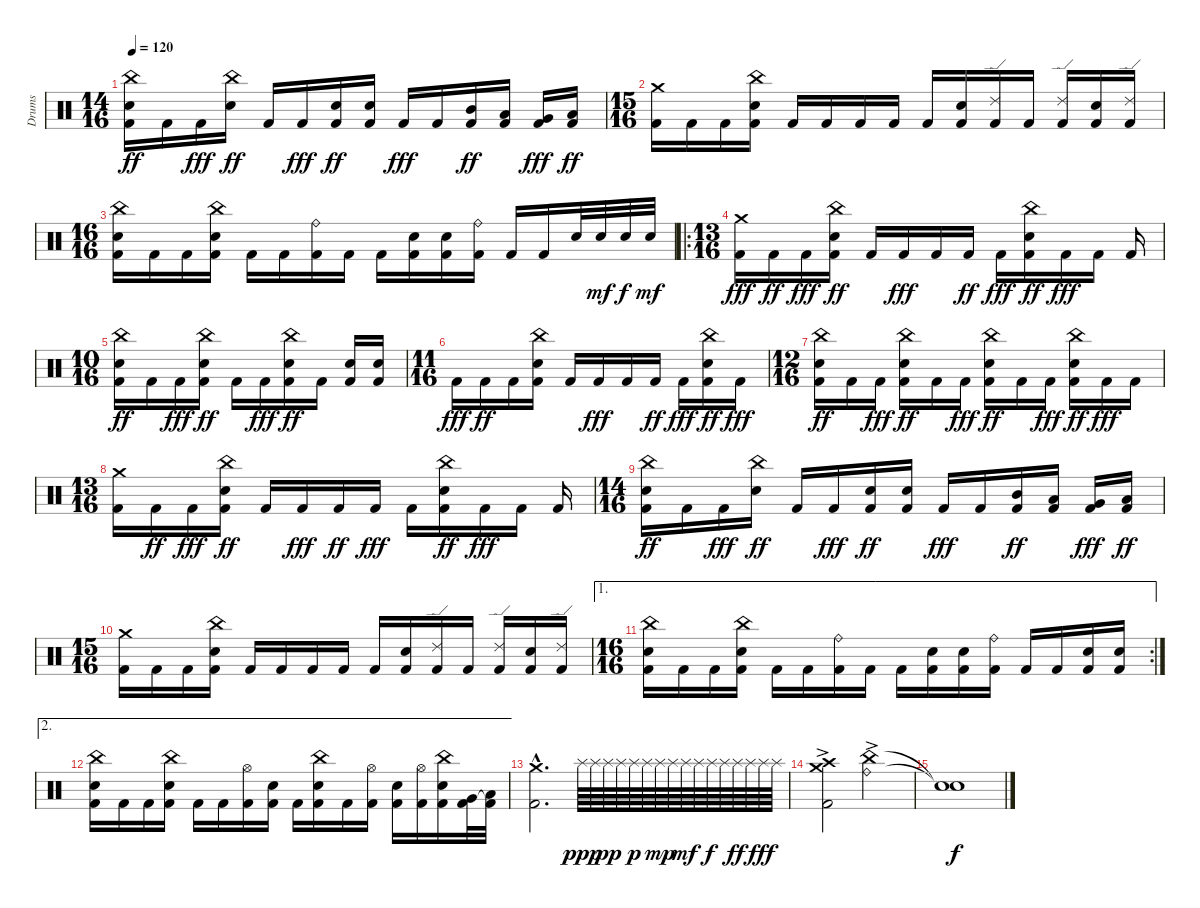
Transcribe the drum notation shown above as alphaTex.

\track ("Drums" "Drums") {instrument percussion}
\staff {score}
\articulation defaults
\ts (14 16)
\tempo 120
\clef neutral
\ks c
("China (hit)" "Snare (hit) 2" "Kick (hit) 2").16{dy ff} "Kick (hit) 2".16 "Kick (hit) 2".16{dy fff} ("China (hit)" "Snare (hit) 2").16{dy ff} "Kick (hit) 2".16 "Kick (hit) 2".16{dy fff} ("Snare (hit) 2" "Kick (hit) 2").16{dy ff} ("Snare (hit) 2" "Kick (hit) 2").16 "Kick (hit) 2".16{dy fff} "Kick (hit) 2".16 ("Mid Tom (hit)" "Kick (hit) 2").16{dy ff} ("Low Tom (hit)" "Kick (hit) 2").16 ("Very Low Tom (hit)" "Kick (hit) 2").16{dy fff} ("Low Floor Tom (hit)" "Kick (hit) 2").16{dy ff} |
\ts (15 16)
("Crash medium (hit)" "Kick (hit) 2").16 "Kick (hit) 2".16 "Kick (hit) 2".16 ("China (hit)" "Snare (hit) 2" "Kick (hit) 2").16 "Kick (hit) 2".16 "Kick (hit) 2".16 "Kick (hit) 2".16 "Kick (hit) 2".16 "Kick (hit) 2".16 ("Snare (hit) 2" "Kick (hit) 2").16 ("Ride (edge) 2" "Kick (hit) 2").16 "Kick (hit) 2".16 ("Ride (edge) 2" "Kick (hit) 2").16 ("Snare (hit) 2" "Kick (hit) 2").16 ("Ride (edge) 2" "Kick (hit) 2").16 |
\ts (16 16)
("China (hit)" "Snare (hit) 2" "Kick (hit) 2").16 "Kick (hit) 2".16 "Kick (hit) 2".16 ("China (hit)" "Snare (hit) 2" "Kick (hit) 2").16 "Kick (hit) 2".16 "Kick (hit) 2".16 ("Ride (bell)" "Kick (hit) 2").16 "Kick (hit) 2".16 "Kick (hit) 2".16 ("Snare (hit) 2" "Kick (hit) 2").16 ("Snare (hit) 2" "Kick (hit) 2").16 ("Ride (bell)" "Kick (hit) 2").16 "Kick (hit) 2".16 "Kick (hit) 2".16 "Snare (hit) 2".32 "Snare (hit) 2".32{dy mf} "Snare (hit) 2".32{dy f} "Snare (hit) 2".32{dy mf} |
\ro
\ts (13 16)
("Crash medium (hit)" "Kick (hit) 2").16{dy fff} "Kick (hit) 2".16{dy ff} "Kick (hit) 2".16{dy fff} ("China (hit)" "Snare (hit) 2" "Kick (hit) 2").16{dy ff} "Kick (hit) 2".16 "Kick (hit) 2".16{dy fff} "Kick (hit) 2".16 "Kick (hit) 2".16{dy ff} "Kick (hit) 2".16{dy fff} ("China (hit)" "Snare (hit) 2" "Kick (hit) 2").16{dy ff} "Kick (hit) 2".16{dy fff} "Kick (hit) 2".16 "Kick (hit) 2".16 |
\ts (10 16)
("China (hit)" "Snare (hit) 2" "Kick (hit) 2").16{dy ff} "Kick (hit) 2".16 "Kick (hit) 2".16{dy fff} ("China (hit)" "Snare (hit) 2" "Kick (hit) 2").16{dy ff} "Kick (hit) 2".16 "Kick (hit) 2".16{dy fff} ("China (hit)" "Snare (hit) 2" "Kick (hit) 2").16{dy ff} "Kick (hit) 2".16 ("Snare (hit) 2" "Kick (hit) 2").16 ("Snare (hit) 2" "Kick (hit) 2").16 |
\ts (11 16)
"Kick (hit) 2".16{dy fff} "Kick (hit) 2".16{dy ff} "Kick (hit) 2".16 ("China (hit)" "Snare (hit) 2" "Kick (hit) 2").16 "Kick (hit) 2".16 "Kick (hit) 2".16{dy fff} "Kick (hit) 2".16 "Kick (hit) 2".16{dy ff} "Kick (hit) 2".16{dy fff} ("China (hit)" "Snare (hit) 2" "Kick (hit) 2").16{dy ff} "Kick (hit) 2".16{dy fff} |
\ts (12 16)
("China (hit)" "Snare (hit) 2" "Kick (hit) 2").16{dy ff} "Kick (hit) 2".16 "Kick (hit) 2".16{dy fff} ("China (hit)" "Snare (hit) 2" "Kick (hit) 2").16{dy ff} "Kick (hit) 2".16 "Kick (hit) 2".16{dy fff} ("China (hit)" "Snare (hit) 2" "Kick (hit) 2").16{dy ff} "Kick (hit) 2".16 "Kick (hit) 2".16{dy fff} ("China (hit)" "Snare (hit) 2" "Kick (hit) 2").16{dy ff} "Kick (hit) 2".16{dy fff} "Kick (hit) 2".16 |
\ts (13 16)
("Crash medium (hit)" "Kick (hit) 2").16 "Kick (hit) 2".16{dy ff} "Kick (hit) 2".16{dy fff} ("China (hit)" "Snare (hit) 2" "Kick (hit) 2").16{dy ff} "Kick (hit) 2".16 "Kick (hit) 2".16{dy fff} "Kick (hit) 2".16{dy ff} "Kick (hit) 2".16{dy fff} "Kick (hit) 2".16 ("China (hit)" "Snare (hit) 2" "Kick (hit) 2").16{dy ff} "Kick (hit) 2".16{dy fff} "Kick (hit) 2".16 "Kick (hit) 2".16 |
\ts (14 16)
("China (hit)" "Snare (hit) 2" "Kick (hit) 2").16{dy ff} "Kick (hit) 2".16 "Kick (hit) 2".16{dy fff} ("China (hit)" "Snare (hit) 2").16{dy ff} "Kick (hit) 2".16 "Kick (hit) 2".16{dy fff} ("Snare (hit) 2" "Kick (hit) 2").16{dy ff} ("Snare (hit) 2" "Kick (hit) 2").16 "Kick (hit) 2".16{dy fff} "Kick (hit) 2".16 ("Mid Tom (hit)" "Kick (hit) 2").16{dy ff} ("Low Tom (hit)" "Kick (hit) 2").16 ("Very Low Tom (hit)" "Kick (hit) 2").16{dy fff} ("Low Floor Tom (hit)" "Kick (hit) 2").16{dy ff} |
\ts (15 16)
("Crash medium (hit)" "Kick (hit) 2").16 "Kick (hit) 2".16 "Kick (hit) 2".16 ("China (hit)" "Snare (hit) 2" "Kick (hit) 2").16 "Kick (hit) 2".16 "Kick (hit) 2".16 "Kick (hit) 2".16 "Kick (hit) 2".16 "Kick (hit) 2".16 ("Snare (hit) 2" "Kick (hit) 2").16 ("Ride (edge) 2" "Kick (hit) 2").16 "Kick (hit) 2".16 ("Ride (edge) 2" "Kick (hit) 2").16 ("Snare (hit) 2" "Kick (hit) 2").16 ("Ride (edge) 2" "Kick (hit) 2").16 |
\ae 1
\rc 2
\ts (16 16)
("China (hit)" "Snare (hit) 2" "Kick (hit) 2").16 "Kick (hit) 2".16 "Kick (hit) 2".16 ("China (hit)" "Snare (hit) 2" "Kick (hit) 2").16 "Kick (hit) 2".16 "Kick (hit) 2".16 ("Ride (bell)" "Kick (hit) 2").16 "Kick (hit) 2".16 "Kick (hit) 2".16 ("Snare (hit) 2" "Kick (hit) 2").16 ("Snare (hit) 2" "Kick (hit) 2").16 ("Ride (bell)" "Kick (hit) 2").16 "Kick (hit) 2".16 "Kick (hit) 2".16 ("Snare (hit) 2" "Kick (hit) 2").16 ("Snare (hit) 2" "Kick (hit) 2").16 |
\ae 2
("China (hit)" "Snare (hit) 2" "Kick (hit) 2").16 "Kick (hit) 2".16 "Kick (hit) 2".16 ("China (hit)" "Snare (hit) 2" "Kick (hit) 2").16 "Kick (hit) 2".16 "Kick (hit) 2".16 ("Hi-Hat (open)" "Kick (hit) 2").16 ("Snare (hit) 2" "Kick (hit) 2").16 "Kick (hit) 2".16 ("China (hit)" "Snare (hit) 2" "Kick (hit) 2").16 "Kick (hit) 2".16 ("Hi-Hat (open)" "Kick (hit) 2").16 ("Snare (hit) 2" "Kick (hit) 2").16 ("Hi-Hat (open)" "Kick (hit) 2").16 ("China (hit)" "Snare (hit) 2" "Kick (hit) 2").16 ("Very Low Tom (hit)" "Kick (hit) 2").32 ("Low Floor Tom (hit)" "Kick (hit) 2"{t}).32 |
("Crash medium (hit)"{hac} "Kick (hit) 2"{hac}).2{d} "Splash (hit)".64{dy ppp} "Splash (hit)".64 "Splash (hit)".64{dy pp} "Splash (hit)".64 "Splash (hit)".64{dy p} "Splash (hit)".64 "Splash (hit)".64{dy mp} "Splash (hit)".64 "Splash (hit)".64{dy mf} "Splash (hit)".64 "Splash (hit)".64{dy f} "Splash (hit)".64 "Splash (hit)".64{dy ff} "Splash (hit)".64 "Splash (hit)".64{dy fff} "Splash (hit)".64 |
("Crash medium (hit)"{ac} "Crash high (hit)"{ac} "Kick (hit) 2"{ac}).2 ("China (hit)"{ac} "Ride (bell)"{ac}).2 |
("Snare (hit)"{t} "Snare (hit)"{t}).1{dy f}
